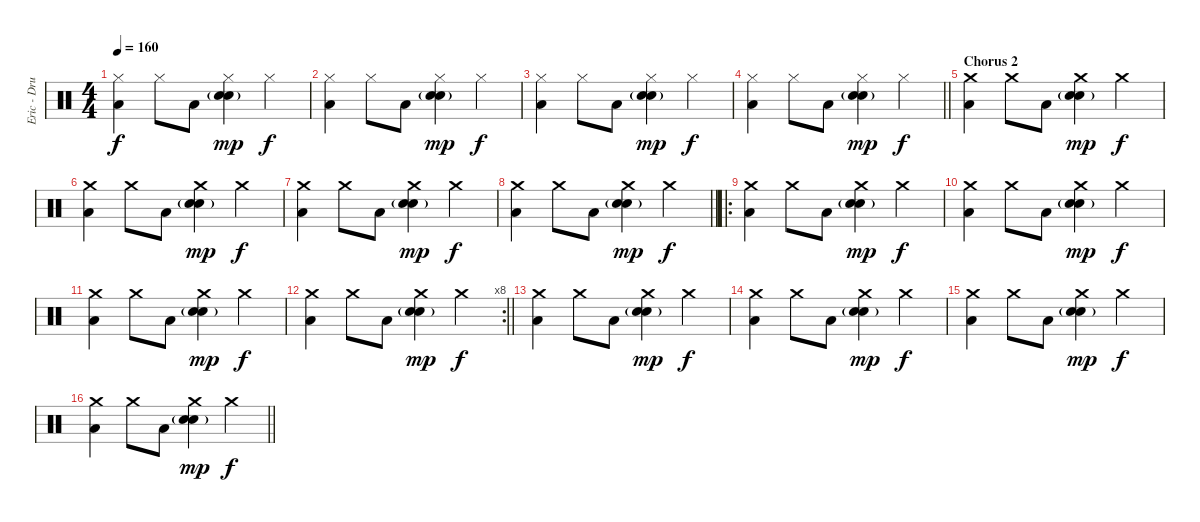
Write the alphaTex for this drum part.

\track ("Eric - Drums" "Eric - Dru") {instrument percussion}
\staff {score}
\articulation defaults
\ts (4 4)
\tempo 160
\clef neutral
\ks c
("Hi-Hat (closed)" "Low Floor Tom (hit)").4{dy f} "Hi-Hat (closed)".8 "Low Floor Tom (hit)".8 ("Hi-Hat (closed)" "Electric Snare (hit)" "Snare (hit) 2"{g}).4{dy mp} "Hi-Hat (closed)".4{dy f} |
("Hi-Hat (closed)" "Low Floor Tom (hit)").4 "Hi-Hat (closed)".8 "Low Floor Tom (hit)".8 ("Hi-Hat (closed)" "Electric Snare (hit)" "Snare (hit) 2"{g}).4{dy mp} "Hi-Hat (closed)".4{dy f} |
("Hi-Hat (closed)" "Low Floor Tom (hit)").4 "Hi-Hat (closed)".8 "Low Floor Tom (hit)".8 ("Hi-Hat (closed)" "Electric Snare (hit)" "Snare (hit) 2"{g}).4{dy mp} "Hi-Hat (closed)".4{dy f} |
\barLineRight lightlight
("Hi-Hat (closed)" "Low Floor Tom (hit)").4 "Hi-Hat (closed)".8 "Low Floor Tom (hit)".8 ("Hi-Hat (closed)" "Electric Snare (hit)" "Snare (hit) 2"{g}).4{dy mp} "Hi-Hat (closed)".4{dy f} |
\section ("" "Chorus 2")
("Crash medium (hit)" "Low Floor Tom (hit)").4 "Crash medium (hit)".8 "Low Floor Tom (hit)".8 ("Crash medium (hit)" "Electric Snare (hit)" "Snare (hit) 2"{g}).4{dy mp} "Crash medium (hit)".4{dy f} |
("Crash medium (hit)" "Low Floor Tom (hit)").4 "Crash medium (hit)".8 "Low Floor Tom (hit)".8 ("Crash medium (hit)" "Electric Snare (hit)" "Snare (hit) 2"{g}).4{dy mp} "Crash medium (hit)".4{dy f} |
("Crash medium (hit)" "Low Floor Tom (hit)").4 "Crash medium (hit)".8 "Low Floor Tom (hit)".8 ("Crash medium (hit)" "Electric Snare (hit)" "Snare (hit) 2"{g}).4{dy mp} "Crash medium (hit)".4{dy f} |
\barLineRight lightlight
("Crash medium (hit)" "Low Floor Tom (hit)").4 "Crash medium (hit)".8 "Low Floor Tom (hit)".8 ("Crash medium (hit)" "Electric Snare (hit)" "Snare (hit) 2"{g}).4{dy mp} "Crash medium (hit)".4{dy f} |
\ro
("Crash medium (hit)" "Low Floor Tom (hit)").4 "Crash medium (hit)".8 "Low Floor Tom (hit)".8 ("Crash medium (hit)" "Electric Snare (hit)" "Snare (hit) 2"{g}).4{dy mp} "Crash medium (hit)".4{dy f} |
("Crash medium (hit)" "Low Floor Tom (hit)").4 "Crash medium (hit)".8 "Low Floor Tom (hit)".8 ("Crash medium (hit)" "Electric Snare (hit)" "Snare (hit) 2"{g}).4{dy mp} "Crash medium (hit)".4{dy f} |
("Crash medium (hit)" "Low Floor Tom (hit)").4 "Crash medium (hit)".8 "Low Floor Tom (hit)".8 ("Crash medium (hit)" "Electric Snare (hit)" "Snare (hit) 2"{g}).4{dy mp} "Crash medium (hit)".4{dy f} |
\rc 8
\barLineRight lightlight
("Crash medium (hit)" "Low Floor Tom (hit)").4 "Crash medium (hit)".8 "Low Floor Tom (hit)".8 ("Crash medium (hit)" "Electric Snare (hit)" "Snare (hit) 2"{g}).4{dy mp} "Crash medium (hit)".4{dy f} |
("Crash medium (hit)" "Low Floor Tom (hit)").4 "Crash medium (hit)".8 "Low Floor Tom (hit)".8 ("Crash medium (hit)" "Electric Snare (hit)" "Snare (hit) 2"{g}).4{dy mp} "Crash medium (hit)".4{dy f} |
("Crash medium (hit)" "Low Floor Tom (hit)").4 "Crash medium (hit)".8 "Low Floor Tom (hit)".8 ("Crash medium (hit)" "Electric Snare (hit)" "Snare (hit) 2"{g}).4{dy mp} "Crash medium (hit)".4{dy f} |
("Crash medium (hit)" "Low Floor Tom (hit)").4 "Crash medium (hit)".8 "Low Floor Tom (hit)".8 ("Crash medium (hit)" "Electric Snare (hit)" "Snare (hit) 2"{g}).4{dy mp} "Crash medium (hit)".4{dy f} |
\barLineRight lightlight
("Crash medium (hit)" "Low Floor Tom (hit)").4 "Crash medium (hit)".8 "Low Floor Tom (hit)".8 ("Crash medium (hit)" "Electric Snare (hit)" "Snare (hit) 2"{g}).4{dy mp} "Crash medium (hit)".4{dy f}
